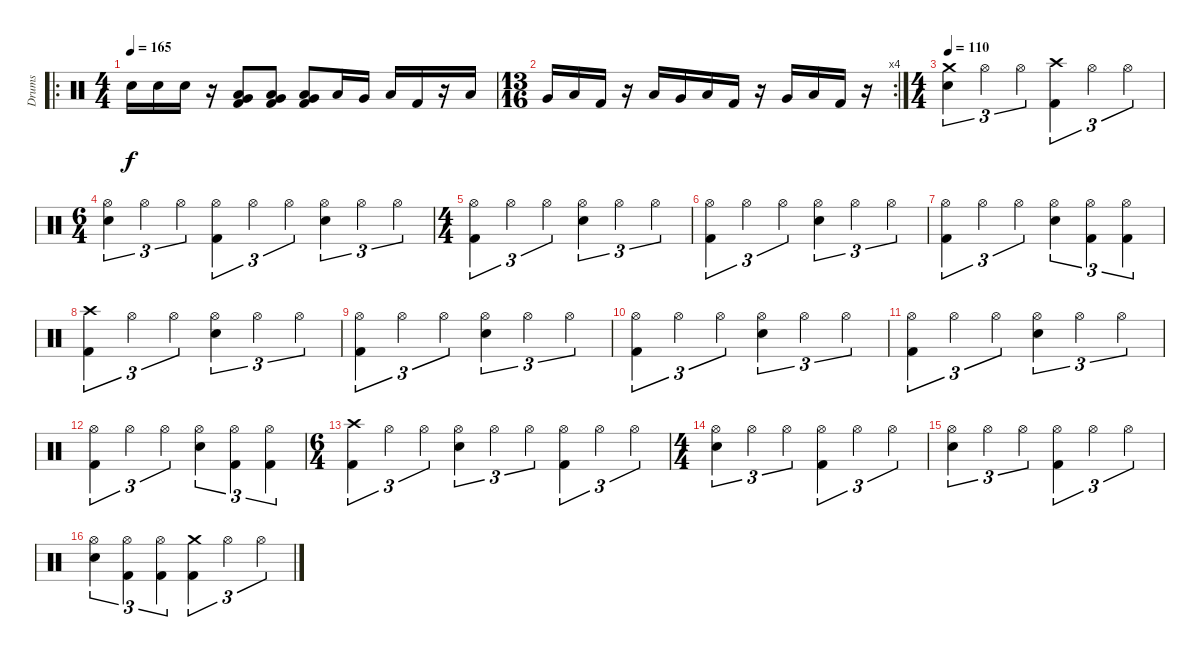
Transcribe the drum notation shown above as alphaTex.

\track ("Drums" "Drums") {instrument percussion}
\staff {score}
\articulation defaults
\ro
\ts (4 4)
\tempo 165
\clef neutral
\ks c "Electric Snare (hit)".16{dy f} "Electric Snare (hit)".16 "Electric Snare (hit)".16
r.16 ("Low Tom (hit)" "Very Low Tom (hit)" "Kick (hit) 2").8 ("Very Low Tom (hit)" "Low Floor Tom (hit)" "Kick (hit) 2").8 ("Very Low Tom (hit)" "Low Floor Tom (hit)" "Kick (hit) 2").8 "Low Tom (hit)".16 "Very Low Tom (hit)".16 "Low Floor Tom (hit)".16 "Kick (hit) 2".16 r.16 "Low Tom (hit)".16 |
\rc 4
\ts (13 16)
"Very Low Tom (hit)".16 "Low Floor Tom (hit)".16 "Kick (hit) 2".16 r.16 "Low Tom (hit)".16 "Very Low Tom (hit)".16 "Low Floor Tom (hit)".16 "Kick (hit) 2".16 r.16 "Very Low Tom (hit)".16 "Low Floor Tom (hit)".16 "Kick (hit) 2".16 r.16 |
\ts (4 4)
\tempo 110
("Crash medium (hit)" "Electric Snare (hit)").4{tu (3 2)} "Hi-Hat (open)".4{tu (3 2)} "Hi-Hat (open)".4{tu (3 2)} ("Crash high (hit)" "Kick (hit) 2").4{tu (3 2)} "Hi-Hat (open)".4{tu (3 2)} "Hi-Hat (open)".4{tu (3 2)} |
\ts (6 4)
("Hi-Hat (open)" "Electric Snare (hit)").4{tu (3 2)} "Hi-Hat (open)".4{tu (3 2)} "Hi-Hat (open)".4{tu (3 2)} ("Hi-Hat (open)" "Kick (hit) 2").4{tu (3 2)} "Hi-Hat (open)".4{tu (3 2)} "Hi-Hat (open)".4{tu (3 2)} ("Hi-Hat (open)" "Electric Snare (hit)").4{tu (3 2)} "Hi-Hat (open)".4{tu (3 2)} "Hi-Hat (open)".4{tu (3 2)} |
\ts (4 4)
("Hi-Hat (open)" "Kick (hit) 2").4{tu (3 2)} "Hi-Hat (open)".4{tu (3 2)} "Hi-Hat (open)".4{tu (3 2)} ("Hi-Hat (open)" "Electric Snare (hit)").4{tu (3 2)} "Hi-Hat (open)".4{tu (3 2)} "Hi-Hat (open)".4{tu (3 2)} |
("Hi-Hat (open)" "Kick (hit) 2").4{tu (3 2)} "Hi-Hat (open)".4{tu (3 2)} "Hi-Hat (open)".4{tu (3 2)} ("Hi-Hat (open)" "Electric Snare (hit)").4{tu (3 2)} "Hi-Hat (open)".4{tu (3 2)} "Hi-Hat (open)".4{tu (3 2)} |
("Hi-Hat (open)" "Kick (hit) 2").4{tu (3 2)} "Hi-Hat (open)".4{tu (3 2)} "Hi-Hat (open)".4{tu (3 2)} ("Hi-Hat (open)" "Electric Snare (hit)").4{tu (3 2)} ("Hi-Hat (open)" "Kick (hit) 2").4{tu (3 2)} ("Hi-Hat (open)" "Kick (hit) 2").4{tu (3 2)} |
("Crash high (hit)" "Kick (hit) 2").4{tu (3 2)} "Hi-Hat (open)".4{tu (3 2)} "Hi-Hat (open)".4{tu (3 2)} ("Hi-Hat (open)" "Electric Snare (hit)").4{tu (3 2)} "Hi-Hat (open)".4{tu (3 2)} "Hi-Hat (open)".4{tu (3 2)} |
("Hi-Hat (open)" "Kick (hit) 2").4{tu (3 2)} "Hi-Hat (open)".4{tu (3 2)} "Hi-Hat (open)".4{tu (3 2)} ("Hi-Hat (open)" "Electric Snare (hit)").4{tu (3 2)} "Hi-Hat (open)".4{tu (3 2)} "Hi-Hat (open)".4{tu (3 2)} |
("Hi-Hat (open)" "Kick (hit) 2").4{tu (3 2)} "Hi-Hat (open)".4{tu (3 2)} "Hi-Hat (open)".4{tu (3 2)} ("Hi-Hat (open)" "Electric Snare (hit)").4{tu (3 2)} "Hi-Hat (open)".4{tu (3 2)} "Hi-Hat (open)".4{tu (3 2)} |
("Hi-Hat (open)" "Kick (hit) 2").4{tu (3 2)} "Hi-Hat (open)".4{tu (3 2)} "Hi-Hat (open)".4{tu (3 2)} ("Hi-Hat (open)" "Electric Snare (hit)").4{tu (3 2)} "Hi-Hat (open)".4{tu (3 2)} "Hi-Hat (open)".4{tu (3 2)} |
("Hi-Hat (open)" "Kick (hit) 2").4{tu (3 2)} "Hi-Hat (open)".4{tu (3 2)} "Hi-Hat (open)".4{tu (3 2)} ("Hi-Hat (open)" "Electric Snare (hit)").4{tu (3 2)} ("Hi-Hat (open)" "Kick (hit) 2").4{tu (3 2)} ("Hi-Hat (open)" "Kick (hit) 2").4{tu (3 2)} |
\ts (6 4)
("Crash high (hit)" "Kick (hit) 2").4{tu (3 2)} "Hi-Hat (open)".4{tu (3 2)} "Hi-Hat (open)".4{tu (3 2)} ("Hi-Hat (open)" "Electric Snare (hit)").4{tu (3 2)} "Hi-Hat (open)".4{tu (3 2)} "Hi-Hat (open)".4{tu (3 2)} ("Hi-Hat (open)" "Kick (hit) 2").4{tu (3 2)} "Hi-Hat (open)".4{tu (3 2)} "Hi-Hat (open)".4{tu (3 2)} |
\ts (4 4)
("Hi-Hat (open)" "Electric Snare (hit)").4{tu (3 2)} "Hi-Hat (open)".4{tu (3 2)} "Hi-Hat (open)".4{tu (3 2)} ("Hi-Hat (open)" "Kick (hit) 2").4{tu (3 2)} "Hi-Hat (open)".4{tu (3 2)} "Hi-Hat (open)".4{tu (3 2)} |
("Hi-Hat (open)" "Electric Snare (hit)").4{tu (3 2)} "Hi-Hat (open)".4{tu (3 2)} "Hi-Hat (open)".4{tu (3 2)} ("Hi-Hat (open)" "Kick (hit) 2").4{tu (3 2)} "Hi-Hat (open)".4{tu (3 2)} "Hi-Hat (open)".4{tu (3 2)} |
("Hi-Hat (open)" "Electric Snare (hit)").4{tu (3 2)} ("Hi-Hat (open)" "Kick (hit) 2").4{tu (3 2)} ("Hi-Hat (open)" "Kick (hit) 2").4{tu (3 2)} ("Crash medium (hit)" "Kick (hit) 2").4{tu (3 2)} "Hi-Hat (open)".4{tu (3 2)} "Hi-Hat (open)".4{tu (3 2)}
